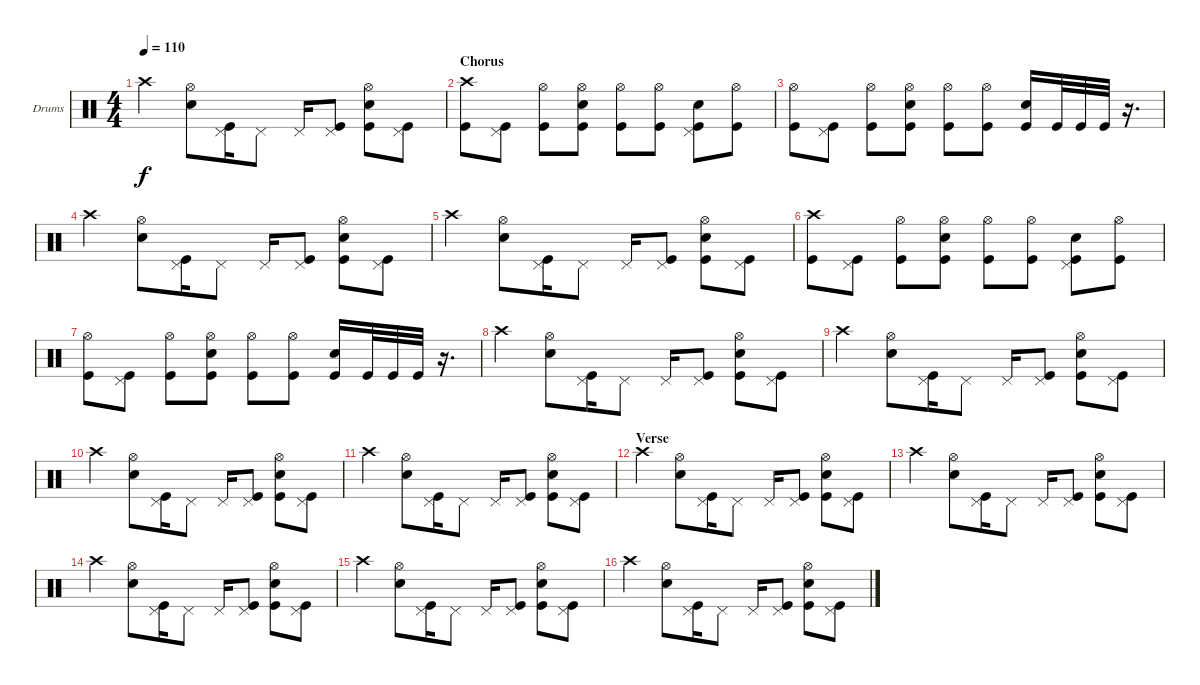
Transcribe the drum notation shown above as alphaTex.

\bracketExtendMode groupsimilarinstruments
\firstSystemTrackNameOrientation horizontal
\otherSystemsTrackNameOrientation horizontal
\track ("Drumkit" "Drums") {instrument percussion}
\staff {score}
\articulation defaults
\ts (4 4)
\tempo 110
\clef neutral
\ks c "Crash high (hit)".4{dy f}
("Hi-Hat (open)" "Snare (hit) 2").8 ("Pedal Hi-Hat (hit)" "Kick (hit)").16 "Pedal Hi-Hat (hit)".8 "Pedal Hi-Hat (hit)".16 ("Pedal Hi-Hat (hit)" "Kick (hit)").8 ("Hi-Hat (open)" "Snare (hit) 2" "Kick (hit)").8 ("Pedal Hi-Hat (hit)" "Kick (hit)").8 |
\section ("" "Chorus")
("Crash high (hit)" "Kick (hit)").8 ("Pedal Hi-Hat (hit)" "Kick (hit)").8 ("Hi-Hat (open)" "Kick (hit)").8 ("Hi-Hat (open)" "Snare (hit) 2" "Kick (hit)").8 ("Hi-Hat (open)" "Kick (hit)").8 ("Hi-Hat (open)" "Kick (hit)").8 ("Pedal Hi-Hat (hit)" "Snare (hit) 2" "Kick (hit)").8 ("Hi-Hat (open)" "Kick (hit)").8 |
("Hi-Hat (open)" "Kick (hit)").8 ("Pedal Hi-Hat (hit)" "Kick (hit)").8 ("Hi-Hat (open)" "Kick (hit)").8 ("Hi-Hat (open)" "Snare (hit) 2" "Kick (hit)").8 ("Hi-Hat (open)" "Kick (hit)").8 ("Hi-Hat (open)" "Kick (hit)").8 ("Snare (hit) 2" "Kick (hit)").16 "Kick (hit)".32 "Kick (hit)".32 "Kick (hit)".32 r.16{d} |
"Crash high (hit)".4 ("Hi-Hat (open)" "Snare (hit) 2").8 ("Pedal Hi-Hat (hit)" "Kick (hit)").16 "Pedal Hi-Hat (hit)".8 "Pedal Hi-Hat (hit)".16 ("Pedal Hi-Hat (hit)" "Kick (hit)").8 ("Hi-Hat (open)" "Snare (hit) 2" "Kick (hit)").8 ("Pedal Hi-Hat (hit)" "Kick (hit)").8 |
"Crash high (hit)".4 ("Hi-Hat (open)" "Snare (hit) 2").8 ("Pedal Hi-Hat (hit)" "Kick (hit)").16 "Pedal Hi-Hat (hit)".8 "Pedal Hi-Hat (hit)".16 ("Pedal Hi-Hat (hit)" "Kick (hit)").8 ("Hi-Hat (open)" "Snare (hit) 2" "Kick (hit)").8 ("Pedal Hi-Hat (hit)" "Kick (hit)").8 |
("Crash high (hit)" "Kick (hit)").8 ("Pedal Hi-Hat (hit)" "Kick (hit)").8 ("Hi-Hat (open)" "Kick (hit)").8 ("Hi-Hat (open)" "Snare (hit) 2" "Kick (hit)").8 ("Hi-Hat (open)" "Kick (hit)").8 ("Hi-Hat (open)" "Kick (hit)").8 ("Pedal Hi-Hat (hit)" "Snare (hit) 2" "Kick (hit)").8 ("Hi-Hat (open)" "Kick (hit)").8 |
("Hi-Hat (open)" "Kick (hit)").8 ("Pedal Hi-Hat (hit)" "Kick (hit)").8 ("Hi-Hat (open)" "Kick (hit)").8 ("Hi-Hat (open)" "Snare (hit) 2" "Kick (hit)").8 ("Hi-Hat (open)" "Kick (hit)").8 ("Hi-Hat (open)" "Kick (hit)").8 ("Snare (hit) 2" "Kick (hit)").16 "Kick (hit)".32 "Kick (hit)".32 "Kick (hit)".32 r.16{d} |
"Crash high (hit)".4 ("Hi-Hat (open)" "Snare (hit) 2").8 ("Pedal Hi-Hat (hit)" "Kick (hit)").16 "Pedal Hi-Hat (hit)".8 "Pedal Hi-Hat (hit)".16 ("Pedal Hi-Hat (hit)" "Kick (hit)").8 ("Hi-Hat (open)" "Snare (hit) 2" "Kick (hit)").8 ("Pedal Hi-Hat (hit)" "Kick (hit)").8 |
"Crash high (hit)".4 ("Hi-Hat (open)" "Snare (hit) 2").8 ("Pedal Hi-Hat (hit)" "Kick (hit)").16 "Pedal Hi-Hat (hit)".8 "Pedal Hi-Hat (hit)".16 ("Pedal Hi-Hat (hit)" "Kick (hit)").8 ("Hi-Hat (open)" "Snare (hit) 2" "Kick (hit)").8 ("Pedal Hi-Hat (hit)" "Kick (hit)").8 |
"Crash high (hit)".4 ("Hi-Hat (open)" "Snare (hit) 2").8 ("Pedal Hi-Hat (hit)" "Kick (hit)").16 "Pedal Hi-Hat (hit)".8 "Pedal Hi-Hat (hit)".16 ("Pedal Hi-Hat (hit)" "Kick (hit)").8 ("Hi-Hat (open)" "Snare (hit) 2" "Kick (hit)").8 ("Pedal Hi-Hat (hit)" "Kick (hit)").8 |
"Crash high (hit)".4 ("Hi-Hat (open)" "Snare (hit) 2").8 ("Pedal Hi-Hat (hit)" "Kick (hit)").16 "Pedal Hi-Hat (hit)".8 "Pedal Hi-Hat (hit)".16 ("Pedal Hi-Hat (hit)" "Kick (hit)").8 ("Hi-Hat (open)" "Snare (hit) 2" "Kick (hit)").8 ("Pedal Hi-Hat (hit)" "Kick (hit)").8 |
\section ("" "Verse")
"Crash high (hit)".4 ("Hi-Hat (open)" "Snare (hit) 2").8 ("Pedal Hi-Hat (hit)" "Kick (hit)").16 "Pedal Hi-Hat (hit)".8 "Pedal Hi-Hat (hit)".16 ("Pedal Hi-Hat (hit)" "Kick (hit)").8 ("Hi-Hat (open)" "Snare (hit) 2" "Kick (hit)").8 ("Pedal Hi-Hat (hit)" "Kick (hit)").8 |
"Crash high (hit)".4 ("Hi-Hat (open)" "Snare (hit) 2").8 ("Pedal Hi-Hat (hit)" "Kick (hit)").16 "Pedal Hi-Hat (hit)".8 "Pedal Hi-Hat (hit)".16 ("Pedal Hi-Hat (hit)" "Kick (hit)").8 ("Hi-Hat (open)" "Snare (hit) 2" "Kick (hit)").8 ("Pedal Hi-Hat (hit)" "Kick (hit)").8 |
"Crash high (hit)".4 ("Hi-Hat (open)" "Snare (hit) 2").8 ("Pedal Hi-Hat (hit)" "Kick (hit)").16 "Pedal Hi-Hat (hit)".8 "Pedal Hi-Hat (hit)".16 ("Pedal Hi-Hat (hit)" "Kick (hit)").8 ("Hi-Hat (open)" "Snare (hit) 2" "Kick (hit)").8 ("Pedal Hi-Hat (hit)" "Kick (hit)").8 |
"Crash high (hit)".4 ("Hi-Hat (open)" "Snare (hit) 2").8 ("Pedal Hi-Hat (hit)" "Kick (hit)").16 "Pedal Hi-Hat (hit)".8 "Pedal Hi-Hat (hit)".16 ("Pedal Hi-Hat (hit)" "Kick (hit)").8 ("Hi-Hat (open)" "Snare (hit) 2" "Kick (hit)").8 ("Pedal Hi-Hat (hit)" "Kick (hit)").8 |
"Crash high (hit)".4 ("Hi-Hat (open)" "Snare (hit) 2").8 ("Pedal Hi-Hat (hit)" "Kick (hit)").16 "Pedal Hi-Hat (hit)".8 "Pedal Hi-Hat (hit)".16 ("Pedal Hi-Hat (hit)" "Kick (hit)").8 ("Hi-Hat (open)" "Snare (hit) 2" "Kick (hit)").8 ("Pedal Hi-Hat (hit)" "Kick (hit)").8
